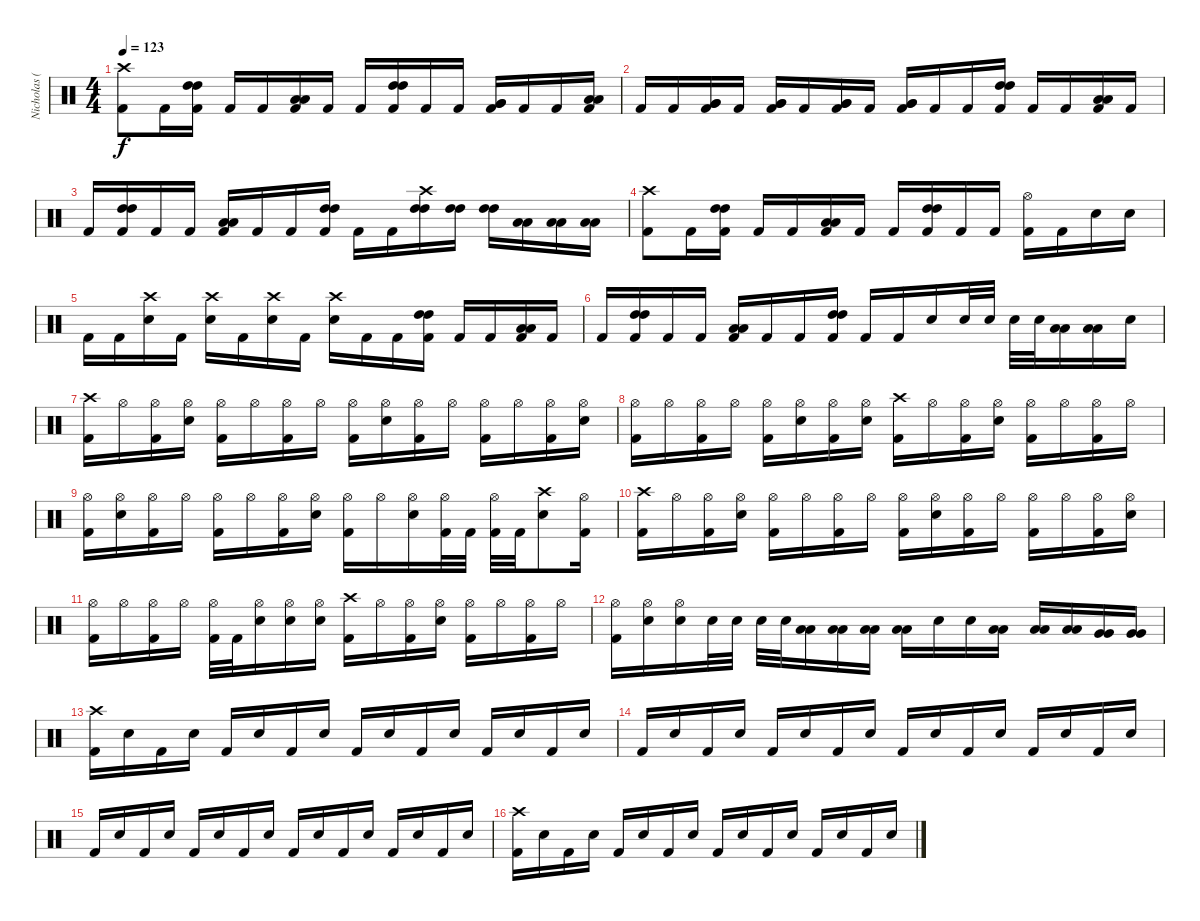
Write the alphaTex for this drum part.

\track ("Nicholas (Drums)" "Nicholas (") {instrument percussion}
\staff {score}
\articulation defaults
\ts (4 4)
\tempo 123
\clef neutral
\ks c
("Crash high (hit)" "Kick (hit) 2").8{dy f} "Kick (hit) 2".16 ("Kick (hit) 2" "High Tom (hit)" "High Tom (hit)").16 "Kick (hit) 2".16 "Kick (hit) 2".16 ("Kick (hit) 2" "Low Tom (hit)" "Low Tom (hit)").16 "Kick (hit) 2".16 "Kick (hit) 2".16 ("Kick (hit) 2" "High Tom (hit)" "High Tom (hit)").16 "Kick (hit) 2".16 "Kick (hit) 2".16 ("Kick (hit) 2" "Very Low Tom (hit)" "Very Low Tom (hit)").16 "Kick (hit) 2".16 "Kick (hit) 2".16 ("Kick (hit) 2" "Low Tom (hit)" "Low Tom (hit)").16 |
"Kick (hit) 2".16 "Kick (hit) 2".16 ("Kick (hit) 2" "Very Low Tom (hit)" "Very Low Tom (hit)").16 "Kick (hit) 2".16 ("Kick (hit) 2" "Very Low Tom (hit)" "Very Low Tom (hit)").16 "Kick (hit) 2".16 ("Kick (hit) 2" "Very Low Tom (hit)" "Very Low Tom (hit)").16 "Kick (hit) 2".16 ("Kick (hit) 2" "Very Low Tom (hit)" "Very Low Tom (hit)").16 "Kick (hit) 2".16 "Kick (hit) 2".16 ("Kick (hit) 2" "High Tom (hit)" "High Tom (hit)").16 "Kick (hit) 2".16 "Kick (hit) 2".16 ("Kick (hit) 2" "Low Tom (hit)" "Low Tom (hit)").16 "Kick (hit) 2".16 |
"Kick (hit) 2".16 ("Kick (hit) 2" "High Tom (hit)" "High Tom (hit)").16 "Kick (hit) 2".16 "Kick (hit) 2".16 ("Kick (hit) 2" "Low Tom (hit)" "Low Tom (hit)").16 "Kick (hit) 2".16 "Kick (hit) 2".16 ("Kick (hit) 2" "High Tom (hit)" "High Tom (hit)").16 "Kick (hit) 2".16 "Kick (hit) 2".16 ("Crash high (hit)" "High Tom (hit)" "High Tom (hit)").16{balance 12} ("High Tom (hit)" "High Tom (hit)").16 ("High Tom (hit)" "High Tom (hit)").16 ("Low Tom (hit)" "Low Tom (hit)").16{balance 4} ("Low Tom (hit)" "Low Tom (hit)").16 ("Low Tom (hit)" "Low Tom (hit)").16 |
("Crash high (hit)" "Kick (hit) 2").8{balance 8} "Kick (hit) 2".16 ("Kick (hit) 2" "High Tom (hit)" "High Tom (hit)").16 "Kick (hit) 2".16 "Kick (hit) 2".16 ("Kick (hit) 2" "Low Tom (hit)" "Low Tom (hit)").16 "Kick (hit) 2".16 "Kick (hit) 2".16 ("Kick (hit) 2" "High Tom (hit)" "High Tom (hit)").16 "Kick (hit) 2".16 "Kick (hit) 2".16 ("Hi-Hat (open)" "Kick (hit) 2").16 "Kick (hit) 2".16 "Electric Snare (hit)".16 "Electric Snare (hit)".16 |
"Kick (hit) 2".16 "Kick (hit) 2".16 ("Crash high (hit)" "Electric Snare (hit)").16 "Kick (hit) 2".16 ("Crash high (hit)" "Electric Snare (hit)").16 "Kick (hit) 2".16 ("Crash high (hit)" "Electric Snare (hit)").16 "Kick (hit) 2".16 ("Crash high (hit)" "Electric Snare (hit)").16 "Kick (hit) 2".16 "Kick (hit) 2".16 ("Kick (hit) 2" "High Tom (hit)" "High Tom (hit)").16 "Kick (hit) 2".16 "Kick (hit) 2".16 ("Kick (hit) 2" "Low Tom (hit)" "Low Tom (hit)").16 "Kick (hit) 2".16 |
"Kick (hit) 2".16 ("Kick (hit) 2" "High Tom (hit)" "High Tom (hit)").16 "Kick (hit) 2".16 "Kick (hit) 2".16 ("Kick (hit) 2" "Low Tom (hit)" "Low Tom (hit)").16 "Kick (hit) 2".16 "Kick (hit) 2".16 ("Kick (hit) 2" "High Tom (hit)" "High Tom (hit)").16 "Kick (hit) 2".16 "Kick (hit) 2".16 "Electric Snare (hit)".16 "Electric Snare (hit)".32 "Electric Snare (hit)".32 "Electric Snare (hit)".32 "Electric Snare (hit)".32 ("Low Tom (hit)" "Low Tom (hit)").16 ("Low Tom (hit)" "Low Tom (hit)").16 "Electric Snare (hit)".16 |
("Crash high (hit)" "Kick (hit) 2").16 "Hi-Hat (open)".16 ("Hi-Hat (open)" "Kick (hit) 2").16 ("Hi-Hat (open)" "Electric Snare (hit)").16 ("Hi-Hat (open)" "Kick (hit) 2").16 "Hi-Hat (open)".16 ("Hi-Hat (open)" "Kick (hit) 2").16 "Hi-Hat (open)".16 ("Hi-Hat (open)" "Kick (hit) 2").16 ("Hi-Hat (open)" "Electric Snare (hit)").16 ("Hi-Hat (open)" "Kick (hit) 2").16 "Hi-Hat (open)".16 ("Hi-Hat (open)" "Kick (hit) 2").16 "Hi-Hat (open)".16 ("Hi-Hat (open)" "Kick (hit) 2").16 ("Hi-Hat (open)" "Electric Snare (hit)").16 |
("Hi-Hat (open)" "Kick (hit) 2").16 "Hi-Hat (open)".16 ("Hi-Hat (open)" "Kick (hit) 2").16 "Hi-Hat (open)".16 ("Hi-Hat (open)" "Kick (hit) 2").16 ("Hi-Hat (open)" "Electric Snare (hit)").16 ("Hi-Hat (open)" "Kick (hit) 2").16 ("Hi-Hat (open)" "Electric Snare (hit)").16 ("Crash high (hit)" "Kick (hit) 2").16 "Hi-Hat (open)".16 ("Hi-Hat (open)" "Kick (hit) 2").16 ("Hi-Hat (open)" "Electric Snare (hit)").16 ("Hi-Hat (open)" "Kick (hit) 2").16 "Hi-Hat (open)".16 ("Hi-Hat (open)" "Kick (hit) 2").16 "Hi-Hat (open)".16 |
("Hi-Hat (open)" "Kick (hit) 2").16 ("Hi-Hat (open)" "Electric Snare (hit)").16 ("Hi-Hat (open)" "Kick (hit) 2").16 "Hi-Hat (open)".16 ("Hi-Hat (open)" "Kick (hit) 2").16 "Hi-Hat (open)".16 ("Hi-Hat (open)" "Kick (hit) 2").16 ("Hi-Hat (open)" "Electric Snare (hit)").16 ("Hi-Hat (open)" "Kick (hit) 2").16 "Hi-Hat (open)".16 ("Hi-Hat (open)" "Electric Snare (hit)").16 ("Hi-Hat (open)" "Kick (hit) 2").32 "Kick (hit) 2".32 ("Hi-Hat (open)" "Kick (hit) 2").32 "Kick (hit) 2".32 ("Crash high (hit)" "Electric Snare (hit)").8 ("Hi-Hat (open)" "Kick (hit) 2").16 |
("Crash high (hit)" "Kick (hit) 2").16 "Hi-Hat (open)".16 ("Hi-Hat (open)" "Kick (hit) 2").16 ("Hi-Hat (open)" "Electric Snare (hit)").16 ("Hi-Hat (open)" "Kick (hit) 2").16 "Hi-Hat (open)".16 ("Hi-Hat (open)" "Kick (hit) 2").16 "Hi-Hat (open)".16 ("Hi-Hat (open)" "Kick (hit) 2").16 ("Hi-Hat (open)" "Electric Snare (hit)").16 ("Hi-Hat (open)" "Kick (hit) 2").16 "Hi-Hat (open)".16 ("Hi-Hat (open)" "Kick (hit) 2").16 "Hi-Hat (open)".16 ("Hi-Hat (open)" "Kick (hit) 2").16 ("Hi-Hat (open)" "Electric Snare (hit)").16 |
("Hi-Hat (open)" "Kick (hit) 2").16 "Hi-Hat (open)".16 ("Hi-Hat (open)" "Kick (hit) 2").16 "Hi-Hat (open)".16 ("Hi-Hat (open)" "Kick (hit) 2").32 "Kick (hit) 2".32 ("Hi-Hat (open)" "Electric Snare (hit)").16 ("Hi-Hat (open)" "Electric Snare (hit)").16 ("Hi-Hat (open)" "Electric Snare (hit)").16 ("Crash high (hit)" "Kick (hit) 2").16 "Hi-Hat (open)".16 ("Hi-Hat (open)" "Kick (hit) 2").16 ("Hi-Hat (open)" "Electric Snare (hit)").16 ("Hi-Hat (open)" "Kick (hit) 2").16 "Hi-Hat (open)".16 ("Hi-Hat (open)" "Kick (hit) 2").16 "Hi-Hat (open)".16 |
("Hi-Hat (open)" "Kick (hit) 2").16 ("Hi-Hat (open)" "Electric Snare (hit)").16 ("Hi-Hat (open)" "Electric Snare (hit)").16 "Electric Snare (hit)".32 "Electric Snare (hit)".32 "Electric Snare (hit)".32 "Electric Snare (hit)".32 ("Low Tom (hit)" "Low Tom (hit)").16{balance 11} ("Low Tom (hit)" "Low Tom (hit)").16 ("Low Tom (hit)" "Low Tom (hit)").16 ("Low Tom (hit)" "Low Tom (hit)").16 "Electric Snare (hit)".16{balance 8} "Electric Snare (hit)".16 ("Low Tom (hit)" "Low Tom (hit)").16{balance 10} ("Low Tom (hit)" "Low Tom (hit)").16 ("Low Tom (hit)" "Low Tom (hit)").16 ("Very Low Tom (hit)" "Very Low Tom (hit)").16{balance 6} ("Very Low Tom (hit)" "Very Low Tom (hit)").16 |
("Crash high (hit)" "Kick (hit) 2").16{balance 8} "Electric Snare (hit)".16 "Kick (hit) 2".16 "Electric Snare (hit)".16 "Kick (hit) 2".16 "Electric Snare (hit)".16 "Kick (hit) 2".16 "Electric Snare (hit)".16 "Kick (hit) 2".16 "Electric Snare (hit)".16 "Kick (hit) 2".16 "Electric Snare (hit)".16 "Kick (hit) 2".16 "Electric Snare (hit)".16 "Kick (hit) 2".16 "Electric Snare (hit)".16 |
"Kick (hit) 2".16 "Electric Snare (hit)".16 "Kick (hit) 2".16 "Electric Snare (hit)".16 "Kick (hit) 2".16 "Electric Snare (hit)".16 "Kick (hit) 2".16 "Electric Snare (hit)".16 "Kick (hit) 2".16 "Electric Snare (hit)".16 "Kick (hit) 2".16 "Electric Snare (hit)".16 "Kick (hit) 2".16 "Electric Snare (hit)".16 "Kick (hit) 2".16 "Electric Snare (hit)".16 |
"Kick (hit) 2".16 "Electric Snare (hit)".16 "Kick (hit) 2".16 "Electric Snare (hit)".16 "Kick (hit) 2".16 "Electric Snare (hit)".16 "Kick (hit) 2".16 "Electric Snare (hit)".16 "Kick (hit) 2".16 "Electric Snare (hit)".16 "Kick (hit) 2".16 "Electric Snare (hit)".16 "Kick (hit) 2".16 "Electric Snare (hit)".16 "Kick (hit) 2".16 "Electric Snare (hit)".16 |
("Crash high (hit)" "Kick (hit) 2").16 "Electric Snare (hit)".16 "Kick (hit) 2".16 "Electric Snare (hit)".16 "Kick (hit) 2".16 "Electric Snare (hit)".16 "Kick (hit) 2".16 "Electric Snare (hit)".16 "Kick (hit) 2".16 "Electric Snare (hit)".16 "Kick (hit) 2".16 "Electric Snare (hit)".16 "Kick (hit) 2".16 "Electric Snare (hit)".16 "Kick (hit) 2".16 "Electric Snare (hit)".16
